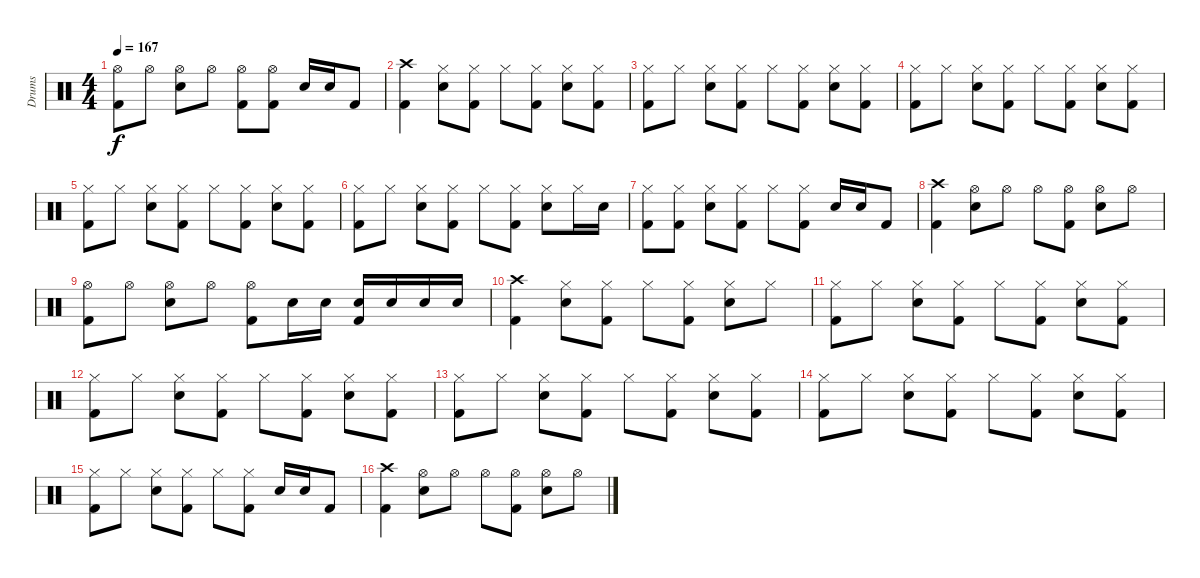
\track ("Drums" "Drums") {instrument percussion}
\staff {score}
\articulation defaults
\ts (4 4)
\tempo 167
\clef neutral
\ks c
("Kick (hit) 2" "Hi-Hat (open)").8{dy f} "Hi-Hat (open)".8 ("Snare (hit) 2" "Hi-Hat (open)").8 "Hi-Hat (open)".8 ("Kick (hit) 2" "Hi-Hat (open)").8 ("Kick (hit) 2" "Hi-Hat (open)").8 "Snare (hit) 2".16 "Snare (hit) 2".16 "Kick (hit) 2".8 |
("Kick (hit) 2" "Crash high (hit)").4 ("Hi-Hat (closed)" "Snare (hit) 2").8 ("Kick (hit) 2" "Hi-Hat (closed)").8 "Hi-Hat (closed)".8 ("Hi-Hat (closed)" "Kick (hit) 2").8 ("Hi-Hat (closed)" "Snare (hit) 2").8 ("Hi-Hat (closed)" "Kick (hit) 2").8 |
("Kick (hit) 2" "Hi-Hat (closed)").8 "Hi-Hat (closed)".8 ("Snare (hit) 2" "Hi-Hat (closed)").8 ("Kick (hit) 2" "Hi-Hat (closed)").8 "Hi-Hat (closed)".8 ("Kick (hit) 2" "Hi-Hat (closed)").8 ("Snare (hit) 2" "Hi-Hat (closed)").8 ("Kick (hit) 2" "Hi-Hat (closed)").8 |
("Kick (hit) 2" "Hi-Hat (closed)").8 "Hi-Hat (closed)".8 ("Snare (hit) 2" "Hi-Hat (closed)").8 ("Kick (hit) 2" "Hi-Hat (closed)").8 "Hi-Hat (closed)".8 ("Kick (hit) 2" "Hi-Hat (closed)").8 ("Snare (hit) 2" "Hi-Hat (closed)").8 ("Kick (hit) 2" "Hi-Hat (closed)").8 |
("Kick (hit) 2" "Hi-Hat (closed)").8 "Hi-Hat (closed)".8 ("Snare (hit) 2" "Hi-Hat (closed)").8 ("Kick (hit) 2" "Hi-Hat (closed)").8 "Hi-Hat (closed)".8 ("Kick (hit) 2" "Hi-Hat (closed)").8 ("Snare (hit) 2" "Hi-Hat (closed)").8 ("Kick (hit) 2" "Hi-Hat (closed)").8 |
("Kick (hit) 2" "Hi-Hat (closed)").8 "Hi-Hat (closed)".8 ("Snare (hit) 2" "Hi-Hat (closed)").8 ("Kick (hit) 2" "Hi-Hat (closed)").8 "Hi-Hat (closed)".8 ("Kick (hit) 2" "Hi-Hat (closed)").8 ("Snare (hit) 2" "Hi-Hat (closed)").8 "Hi-Hat (closed)".16 "Snare (hit) 2".16 |
("Kick (hit) 2" "Hi-Hat (closed)").8 ("Kick (hit) 2" "Hi-Hat (closed)").8 ("Snare (hit) 2" "Hi-Hat (closed)").8 ("Kick (hit) 2" "Hi-Hat (closed)").8 "Hi-Hat (closed)".8 ("Kick (hit) 2" "Hi-Hat (closed)").8 "Snare (hit) 2".16 "Snare (hit) 2".16 "Kick (hit) 2".8 |
("Kick (hit) 2" "Crash high (hit)").4 ("Hi-Hat (open)" "Snare (hit) 2").8 "Hi-Hat (open)".8 "Hi-Hat (open)".8 ("Kick (hit) 2" "Hi-Hat (open)").8 ("Snare (hit) 2" "Hi-Hat (open)").8 "Hi-Hat (open)".8 |
("Kick (hit) 2" "Hi-Hat (open)").8 "Hi-Hat (open)".8 ("Snare (hit) 2" "Hi-Hat (open)").8 "Hi-Hat (open)".8 ("Kick (hit) 2" "Hi-Hat (open)").8 "Snare (hit) 2".16 "Snare (hit) 2".16 ("Snare (hit) 2" "Kick (hit) 2").16 "Snare (hit) 2".16 "Snare (hit) 2".16 "Snare (hit) 2".16 |
("Kick (hit) 2" "Crash high (hit)").4 ("Hi-Hat (closed)" "Snare (hit) 2").8 ("Kick (hit) 2" "Hi-Hat (closed)").8 "Hi-Hat (closed)".8 ("Hi-Hat (closed)" "Kick (hit) 2").8 ("Hi-Hat (closed)" "Snare (hit) 2").8 "Hi-Hat (closed)".8 |
("Kick (hit) 2" "Hi-Hat (closed)").8 "Hi-Hat (closed)".8 ("Snare (hit) 2" "Hi-Hat (closed)").8 ("Kick (hit) 2" "Hi-Hat (closed)").8 "Hi-Hat (closed)".8 ("Kick (hit) 2" "Hi-Hat (closed)").8 ("Snare (hit) 2" "Hi-Hat (closed)").8 ("Kick (hit) 2" "Hi-Hat (closed)").8 |
("Kick (hit) 2" "Hi-Hat (closed)").8 "Hi-Hat (closed)".8 ("Snare (hit) 2" "Hi-Hat (closed)").8 ("Kick (hit) 2" "Hi-Hat (closed)").8 "Hi-Hat (closed)".8 ("Kick (hit) 2" "Hi-Hat (closed)").8 ("Snare (hit) 2" "Hi-Hat (closed)").8 ("Kick (hit) 2" "Hi-Hat (closed)").8 |
("Kick (hit) 2" "Hi-Hat (closed)").8 "Hi-Hat (closed)".8 ("Snare (hit) 2" "Hi-Hat (closed)").8 ("Kick (hit) 2" "Hi-Hat (closed)").8 "Hi-Hat (closed)".8 ("Kick (hit) 2" "Hi-Hat (closed)").8 ("Snare (hit) 2" "Hi-Hat (closed)").8 ("Kick (hit) 2" "Hi-Hat (closed)").8 |
("Kick (hit) 2" "Hi-Hat (closed)").8 "Hi-Hat (closed)".8 ("Snare (hit) 2" "Hi-Hat (closed)").8 ("Kick (hit) 2" "Hi-Hat (closed)").8 "Hi-Hat (closed)".8 ("Kick (hit) 2" "Hi-Hat (closed)").8 ("Snare (hit) 2" "Hi-Hat (closed)").8 ("Kick (hit) 2" "Hi-Hat (closed)").8 |
("Kick (hit) 2" "Hi-Hat (closed)").8 "Hi-Hat (closed)".8 ("Snare (hit) 2" "Hi-Hat (closed)").8 ("Kick (hit) 2" "Hi-Hat (closed)").8 "Hi-Hat (closed)".8 ("Kick (hit) 2" "Hi-Hat (closed)").8 "Snare (hit) 2".16 "Snare (hit) 2".16 "Kick (hit) 2".8 |
("Kick (hit) 2" "Crash high (hit)").4 ("Hi-Hat (open)" "Snare (hit) 2").8 "Hi-Hat (open)".8 "Hi-Hat (open)".8 ("Kick (hit) 2" "Hi-Hat (open)").8 ("Snare (hit) 2" "Hi-Hat (open)").8 "Hi-Hat (open)".8
